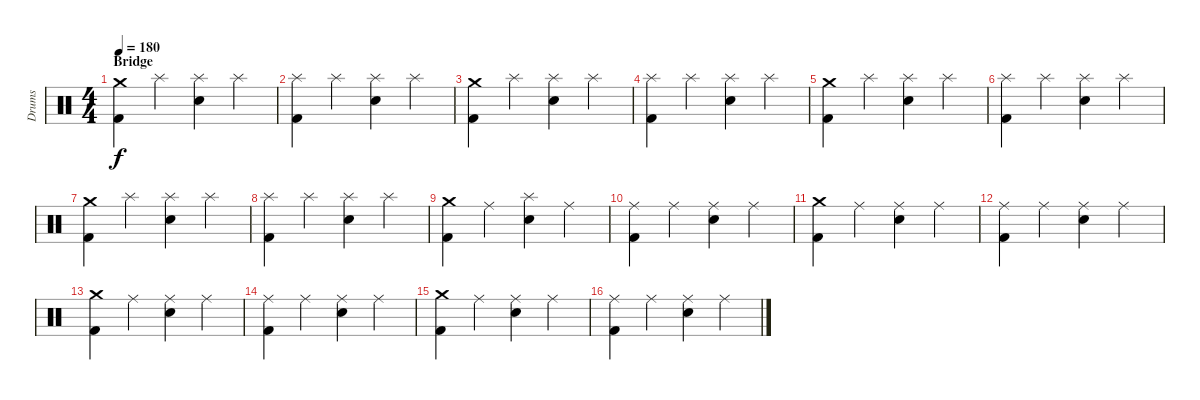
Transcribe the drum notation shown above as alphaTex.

\track ("Drums" "Drums") {instrument percussion}
\staff {score}
\articulation defaults
\ts (4 4)
\section ("" "Bridge")
\tempo 180
\clef neutral
\ks c
("Crash medium (hit)" "Kick (hit) 2").4{dy f} "Splash (hit)".4 ("Splash (hit)" "Snare (hit) 2").4 "Splash (hit)".4 |
("Splash (hit)" "Kick (hit) 2").4 "Splash (hit)".4 ("Splash (hit)" "Snare (hit) 2").4 "Splash (hit)".4 |
("Crash medium (hit)" "Kick (hit) 2").4 "Splash (hit)".4 ("Splash (hit)" "Snare (hit) 2").4 "Splash (hit)".4 |
("Splash (hit)" "Kick (hit) 2").4 "Splash (hit)".4 ("Splash (hit)" "Snare (hit) 2").4 "Splash (hit)".4 |
("Crash medium (hit)" "Kick (hit) 2").4 "Splash (hit)".4 ("Splash (hit)" "Snare (hit) 2").4 "Splash (hit)".4 |
("Splash (hit)" "Kick (hit) 2").4 "Splash (hit)".4 ("Splash (hit)" "Snare (hit) 2").4 "Splash (hit)".4 |
("Crash medium (hit)" "Kick (hit) 2").4 "Splash (hit)".4 ("Splash (hit)" "Snare (hit) 2").4 "Splash (hit)".4 |
("Splash (hit)" "Kick (hit) 2").4 "Splash (hit)".4 ("Splash (hit)" "Snare (hit) 2").4 "Splash (hit)".4 |
("Crash medium (hit)" "Kick (hit) 2").4 "Ride (middle)".4 ("Splash (hit)" "Snare (hit) 2").4 "Ride (middle)".4 |
("Ride (middle)" "Kick (hit) 2").4 "Ride (middle)".4 ("Ride (middle)" "Snare (hit) 2").4 "Ride (middle)".4 |
("Crash medium (hit)" "Kick (hit) 2").4 "Ride (middle)".4 ("Ride (middle)" "Snare (hit) 2").4 "Ride (middle)".4 |
("Ride (middle)" "Kick (hit) 2").4 "Ride (middle)".4 ("Ride (middle)" "Snare (hit) 2").4 "Ride (middle)".4 |
("Crash medium (hit)" "Kick (hit) 2").4 "Ride (middle)".4 ("Ride (middle)" "Snare (hit) 2").4 "Ride (middle)".4 |
("Ride (middle)" "Kick (hit) 2").4 "Ride (middle)".4 ("Ride (middle)" "Snare (hit) 2").4 "Ride (middle)".4 |
("Crash medium (hit)" "Kick (hit) 2").4 "Ride (middle)".4 ("Ride (middle)" "Snare (hit) 2").4 "Ride (middle)".4 |
("Ride (middle)" "Kick (hit) 2").4 "Ride (middle)".4 ("Ride (middle)" "Snare (hit) 2").4 "Ride (middle)".4
